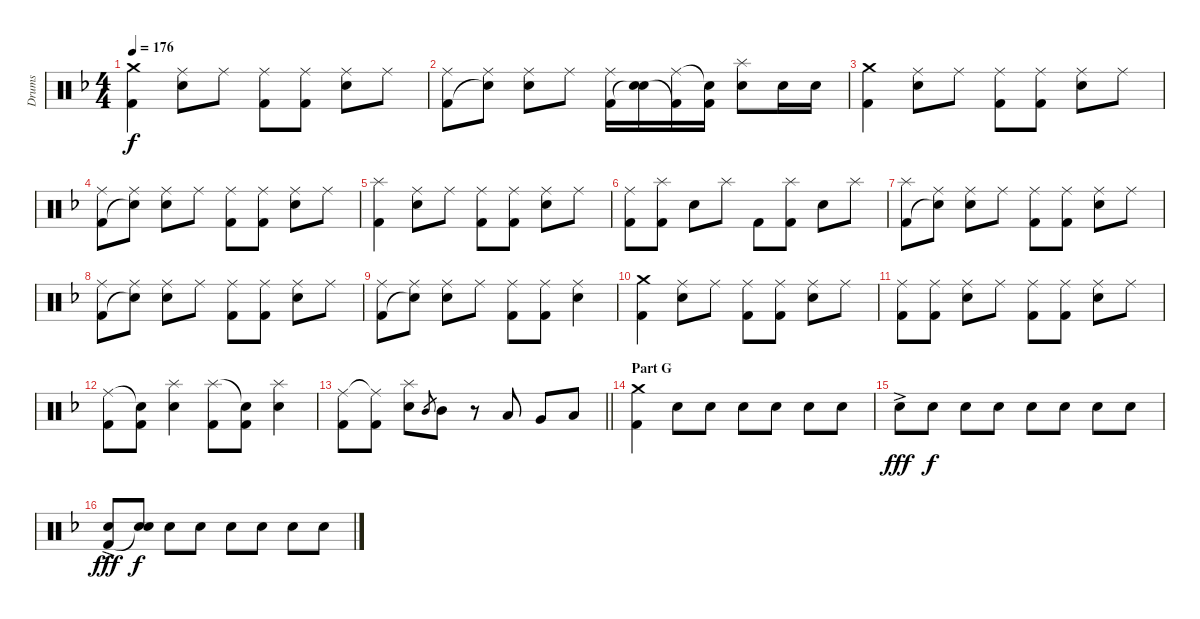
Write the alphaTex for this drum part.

\track ("Drums" "Drums") {instrument percussion}
\staff {score}
\articulation defaults
\ts (4 4)
\tempo 176
\clef neutral
\ks f
("Crash medium (hit)" "Kick (hit) 2").4{dy f} ("Ride (middle)" "Electric Snare (hit)").8 "Ride (middle)".8 ("Ride (middle)" "Kick (hit) 2").8 ("Ride (middle)" "Kick (hit) 2").8 ("Ride (middle)" "Electric Snare (hit)").8 "Ride (middle)".8 |
("Ride (middle)" "Kick (hit) 2").8 ("Ride (middle)" "Snare (hit)"{t}).8 ("Ride (middle)" "Electric Snare (hit)").8 "Ride (middle)".8 ("Ride (middle)" "Kick (hit) 2").16 ("Electric Snare (hit)" "Snare (hit)"{t}).16 ("Ride (middle)" "Kick (hit) 2"{t}).16 ("Snare (hit)"{t} "Kick (hit) 2").16 ("Splash (hit)" "Electric Snare (hit)").8 "Electric Snare (hit)".16 "Electric Snare (hit)".16 |
("Crash medium (hit)" "Kick (hit) 2").4 ("Ride (middle)" "Electric Snare (hit)").8 "Ride (middle)".8 ("Ride (middle)" "Kick (hit) 2").8 ("Ride (middle)" "Kick (hit) 2").8 ("Ride (middle)" "Electric Snare (hit)").8 "Ride (middle)".8 |
("Ride (middle)" "Kick (hit) 2").8 ("Ride (middle)" "Snare (hit)"{t}).8 ("Ride (middle)" "Electric Snare (hit)").8 "Ride (middle)".8 ("Ride (middle)" "Kick (hit) 2").8 ("Ride (middle)" "Kick (hit) 2").8 ("Ride (middle)" "Electric Snare (hit)").8 "Ride (middle)".8 |
("Splash (hit)" "Kick (hit) 2").4 ("Ride (middle)" "Electric Snare (hit)").8 "Ride (middle)".8 ("Ride (middle)" "Kick (hit) 2").8 ("Ride (middle)" "Kick (hit) 2").8 ("Ride (middle)" "Electric Snare (hit)").8 "Ride (middle)".8 |
("Ride (middle)" "Kick (hit) 2").8 ("Splash (hit)" "Kick (hit) 2").8 "Electric Snare (hit)".8 "Splash (hit)".8 "Kick (hit) 2".8 ("Splash (hit)" "Kick (hit) 2").8 "Electric Snare (hit)".8 "Splash (hit)".8 |
("Splash (hit)" "Kick (hit) 2").8 ("Ride (middle)" "Snare (hit)"{t}).8 ("Ride (middle)" "Electric Snare (hit)").8 "Ride (middle)".8 ("Ride (middle)" "Kick (hit) 2").8 ("Ride (middle)" "Kick (hit) 2").8 ("Ride (middle)" "Electric Snare (hit)").8 "Ride (middle)".8 |
("Ride (middle)" "Kick (hit) 2").8 ("Ride (middle)" "Snare (hit)"{t}).8 ("Ride (middle)" "Electric Snare (hit)").8 "Ride (middle)".8 ("Ride (middle)" "Kick (hit) 2").8 ("Ride (middle)" "Kick (hit) 2").8 ("Ride (middle)" "Electric Snare (hit)").8 "Ride (middle)".8 |
("Ride (middle)" "Kick (hit) 2").8 ("Ride (middle)" "Snare (hit)"{t}).8 ("Ride (middle)" "Electric Snare (hit)").8 "Ride (middle)".8 ("Ride (middle)" "Kick (hit) 2").8 ("Ride (middle)" "Kick (hit) 2").8 ("Ride (middle)" "Electric Snare (hit)").4 |
("Crash medium (hit)" "Kick (hit) 2").4 ("Ride (middle)" "Electric Snare (hit)").8 "Ride (middle)".8 ("Ride (middle)" "Kick (hit) 2").8 ("Ride (middle)" "Kick (hit) 2").8 ("Ride (middle)" "Electric Snare (hit)").8 "Ride (middle)".8 |
("Ride (middle)" "Kick (hit) 2").8 ("Ride (middle)" "Kick (hit) 2").8 ("Ride (middle)" "Electric Snare (hit)").8 "Ride (middle)".8 ("Ride (middle)" "Kick (hit) 2").8 ("Ride (middle)" "Kick (hit) 2").8 ("Ride (middle)" "Electric Snare (hit)").8 "Ride (middle)".8 |
("Ride (middle)" "Kick (hit) 2").8 ("Snare (hit)"{t} "Kick (hit) 2").8 ("Splash (hit)" "Electric Snare (hit)").4 ("Splash (hit)" "Kick (hit) 2").8 ("Snare (hit)"{t} "Kick (hit) 2").8 ("Splash (hit)" "Electric Snare (hit)").4 |
\barLineRight lightlight
("Ride (middle)" "Kick (hit) 2").8 ("Ride (middle)"{t} "Kick (hit) 2").8 ("Splash (hit)" "Electric Snare (hit)").8 "Mid Tom (hit)".8{gr} "Mid Tom (hit)".8 r.8 "Low Tom (hit)".8 "Very Low Tom (hit)".8 "Low Floor Tom (hit)".8 |
\section ("" "Part G")
("Crash medium (hit)" "Kick (hit) 2").4 "Electric Snare (hit)".8 "Electric Snare (hit)".8 "Electric Snare (hit)".8 "Electric Snare (hit)".8 "Electric Snare (hit)".8 "Electric Snare (hit)".8 |
"Electric Snare (hit)"{ac}.8{dy fff} "Electric Snare (hit)".8{dy f} "Electric Snare (hit)".8 "Electric Snare (hit)".8 "Electric Snare (hit)".8 "Electric Snare (hit)".8 "Electric Snare (hit)".8 "Electric Snare (hit)".8 |
("Electric Snare (hit)"{ac} "Kick (hit) 2").8{dy fff} ("Electric Snare (hit)" "Snare (hit)"{t}).8{dy f} "Electric Snare (hit)".8 "Electric Snare (hit)".8 "Electric Snare (hit)".8 "Electric Snare (hit)".8 "Electric Snare (hit)".8 "Electric Snare (hit)".8
